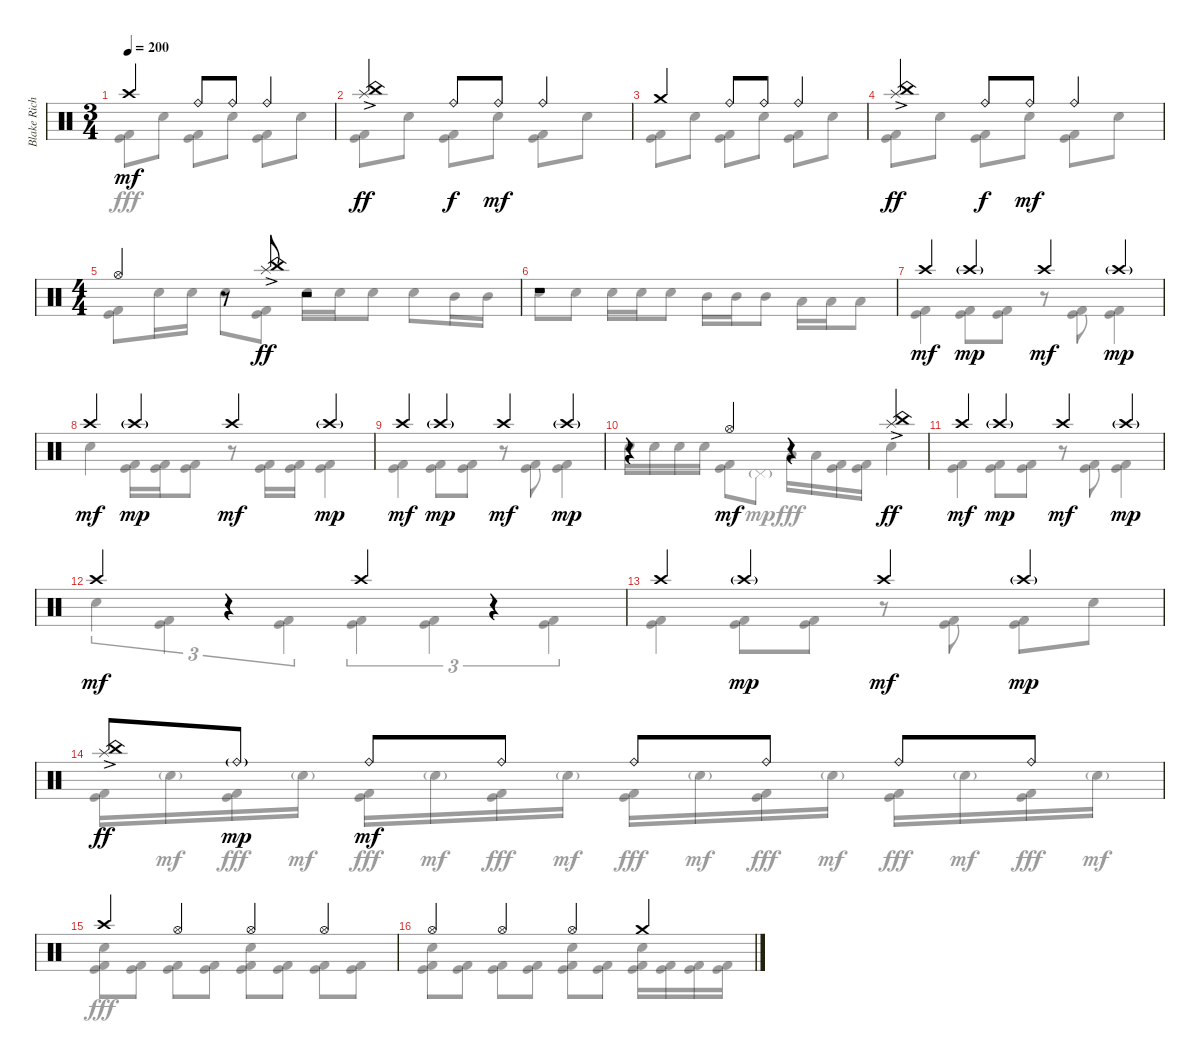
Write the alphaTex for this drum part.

\track ("Blake Richardson Drums" "Blake Rich") {instrument percussion}
\staff {score}
\articulation defaults
\voice
\ts (3 4)
\tempo 200
\clef neutral
\ks c "Crash high (hit)".4{dy mf} "Ride (bell)".8 "Ride (bell)".8 "Ride (bell)".4
|
("China (hit)" "Splash (hit)"{ac}).4{dy ff} "Ride (bell)".8{dy f} "Ride (bell)".8{dy mf} "Ride (bell)".4 |
"Crash medium (hit)".4 "Ride (bell)".8 "Ride (bell)".8 "Ride (bell)".4 |
("China (hit)" "Splash (hit)"{ac}).4{dy ff} "Ride (bell)".8{dy f} "Ride (bell)".8{dy mf} "Ride (bell)".4 |
\ts (4 4)
"Hi-Hat (open)".4 r.8 ("China (hit)" "Splash (hit)"{ac}).8{dy ff} r.2 |
r.1 |
"Crash high (hit)".4{dy mf} "Crash high (hit)"{g}.4{dy mp} "Crash high (hit)".4{dy mf} "Crash high (hit)"{g}.4{dy mp} |
"Crash high (hit)".4{dy mf} "Crash high (hit)"{g}.4{dy mp} "Crash high (hit)".4{dy mf} "Crash high (hit)"{g}.4{dy mp} |
"Crash high (hit)".4{dy mf} "Crash high (hit)"{g}.4{dy mp} "Crash high (hit)".4{dy mf} "Crash high (hit)"{g}.4{dy mp} |
r.4 "Hi-Hat (open)".4{dy mf} r.4 ("China (hit)" "Splash (hit)"{ac}).4{dy ff} |
"Crash high (hit)".4{dy mf} "Crash high (hit)"{g}.4{dy mp} "Crash high (hit)".4{dy mf} "Crash high (hit)"{g}.4{dy mp} |
"Crash high (hit)".4{dy mf} r.4 "Crash high (hit)".4 r.4 |
"Crash high (hit)".4 "Crash high (hit)"{g}.4{dy mp} "Crash high (hit)".4{dy mf} "Crash high (hit)"{g}.4{dy mp} |
("China (hit)" "Splash (hit)"{ac}).8{dy ff} "Ride (bell)"{g}.8{dy mp} "Ride (bell)".8{dy mf} "Ride (bell)".8 "Ride (bell)".8 "Ride (bell)".8 "Ride (bell)".8 "Ride (bell)".8 |
"Crash high (hit)".4 "Hi-Hat (open)".4 "Hi-Hat (open)".4 "Hi-Hat (open)".4 |
"Hi-Hat (open)".4 "Hi-Hat (open)".4 "Hi-Hat (open)".4 "Crash medium (hit)".4
\voice
\clef neutral
\ottava regular
\simile none
\ks c
("Kick (hit)" "Kick (hit) 2").8{dy fff} "Electric Snare (hit)".8 ("Kick (hit)" "Kick (hit) 2").8 "Electric Snare (hit)".8 ("Kick (hit)" "Kick (hit) 2").8 "Electric Snare (hit)".8 |
("Kick (hit)" "Kick (hit) 2").8 "Electric Snare (hit)".8 ("Kick (hit)" "Kick (hit) 2").8 "Electric Snare (hit)".8 ("Kick (hit)" "Kick (hit) 2").8 "Electric Snare (hit)".8 |
("Kick (hit)" "Kick (hit) 2").8 "Electric Snare (hit)".8 ("Kick (hit)" "Kick (hit) 2").8 "Electric Snare (hit)".8 ("Kick (hit)" "Kick (hit) 2").8 "Electric Snare (hit)".8 |
("Kick (hit)" "Kick (hit) 2").8 "Electric Snare (hit)".8 ("Kick (hit)" "Kick (hit) 2").8 "Electric Snare (hit)".8 ("Kick (hit)" "Kick (hit) 2").8 "Electric Snare (hit)".8 |
("Kick (hit)" "Kick (hit) 2").8 "Electric Snare (hit)".16 "Electric Snare (hit)".16 "Electric Snare (hit)".8 ("Kick (hit)" "Kick (hit) 2").8 "Electric Snare (hit)".16 "Electric Snare (hit)".16 "Electric Snare (hit)".8 "Electric Snare (hit)".8 "Mid Tom (hit)".16 "Mid Tom (hit)".16 |
"Electric Snare (hit)".8 "Electric Snare (hit)".8 "Electric Snare (hit)".16 "Electric Snare (hit)".16 "Electric Snare (hit)".8 "Mid Tom (hit)".16 "Mid Tom (hit)".16 "Mid Tom (hit)".8 "Low Tom (hit)".16 "Low Tom (hit)".16 "Low Tom (hit)".8 |
("Kick (hit)" "Kick (hit) 2").4 ("Kick (hit)" "Kick (hit) 2").8 ("Kick (hit)" "Kick (hit) 2").8 r.8 ("Kick (hit)" "Kick (hit) 2").8 ("Kick (hit)" "Kick (hit) 2").4 |
"Electric Snare (hit)".4 ("Kick (hit)" "Kick (hit) 2").16 ("Kick (hit)" "Kick (hit) 2").16 ("Kick (hit)" "Kick (hit) 2").8 r.8 ("Kick (hit)" "Kick (hit) 2").16 ("Kick (hit)" "Kick (hit) 2").16 ("Kick (hit)" "Kick (hit) 2").4 |
("Kick (hit)" "Kick (hit) 2").4 ("Kick (hit)" "Kick (hit) 2").8 ("Kick (hit)" "Kick (hit) 2").8 r.8 ("Kick (hit)" "Kick (hit) 2").8 ("Kick (hit)" "Kick (hit) 2").4 |
"Electric Snare (hit)".16 "Electric Snare (hit)".16 "Electric Snare (hit)".16 "Electric Snare (hit)".16 ("Kick (hit)" "Kick (hit) 2").8 "Pedal Hi-Hat (hit)"{g}.8{dy mp} "Low Tom (hit)".16{dy fff} "Low Tom (hit)".16 ("Kick (hit)" "Kick (hit) 2").16 ("Kick (hit)" "Kick (hit) 2").16 "Electric Snare (hit)".4 |
("Kick (hit)" "Kick (hit) 2").4 ("Kick (hit)" "Kick (hit) 2").8 ("Kick (hit)" "Kick (hit) 2").8 r.8 ("Kick (hit)" "Kick (hit) 2").8 ("Kick (hit)" "Kick (hit) 2").4 |
"Electric Snare (hit)".4{tu (3 2)} ("Kick (hit)" "Kick (hit) 2").4{tu (3 2)} ("Kick (hit)" "Kick (hit) 2").4{tu (3 2)} ("Kick (hit)" "Kick (hit) 2").4{tu (3 2)} ("Kick (hit)" "Kick (hit) 2").4{tu (3 2)} ("Kick (hit)" "Kick (hit) 2").4{tu (3 2)} |
("Kick (hit)" "Kick (hit) 2").4 ("Kick (hit)" "Kick (hit) 2").8 ("Kick (hit)" "Kick (hit) 2").8 r.8 ("Kick (hit)" "Kick (hit) 2").8 ("Kick (hit)" "Kick (hit) 2").8 "Electric Snare (hit)".8 |
("Kick (hit)" "Kick (hit) 2").16 "Electric Snare (hit)"{g}.16{dy mf} ("Kick (hit)" "Kick (hit) 2").16{dy fff} "Electric Snare (hit)"{g}.16{dy mf} ("Kick (hit)" "Kick (hit) 2").16{dy fff} "Electric Snare (hit)"{g}.16{dy mf} ("Kick (hit)" "Kick (hit) 2").16{dy fff} "Electric Snare (hit)"{g}.16{dy mf} ("Kick (hit)" "Kick (hit) 2").16{dy fff} "Electric Snare (hit)"{g}.16{dy mf} ("Kick (hit)" "Kick (hit) 2").16{dy fff} "Electric Snare (hit)"{g}.16{dy mf} ("Kick (hit)" "Kick (hit) 2").16{dy fff} "Electric Snare (hit)"{g}.16{dy mf} ("Kick (hit)" "Kick (hit) 2").16{dy fff} "Electric Snare (hit)"{g}.16{dy mf} |
("Electric Snare (hit)" "Kick (hit)" "Kick (hit) 2").8{dy fff} ("Kick (hit)" "Kick (hit) 2").8 ("Kick (hit)" "Kick (hit) 2").8 ("Kick (hit)" "Kick (hit) 2").8 ("Electric Snare (hit)" "Kick (hit)" "Kick (hit) 2").8 ("Kick (hit)" "Kick (hit) 2").8 ("Kick (hit)" "Kick (hit) 2").8 ("Kick (hit)" "Kick (hit) 2").8 |
("Electric Snare (hit)" "Kick (hit)" "Kick (hit) 2").8 ("Kick (hit)" "Kick (hit) 2").8 ("Kick (hit)" "Kick (hit) 2").8 ("Kick (hit)" "Kick (hit) 2").8 ("Electric Snare (hit)" "Kick (hit)" "Kick (hit) 2").8 ("Kick (hit)" "Kick (hit) 2").8 ("Electric Snare (hit)" "Kick (hit)" "Kick (hit) 2").16 ("Kick (hit)" "Kick (hit) 2").16 ("Kick (hit)" "Kick (hit) 2").16 ("Kick (hit)" "Kick (hit) 2").16
